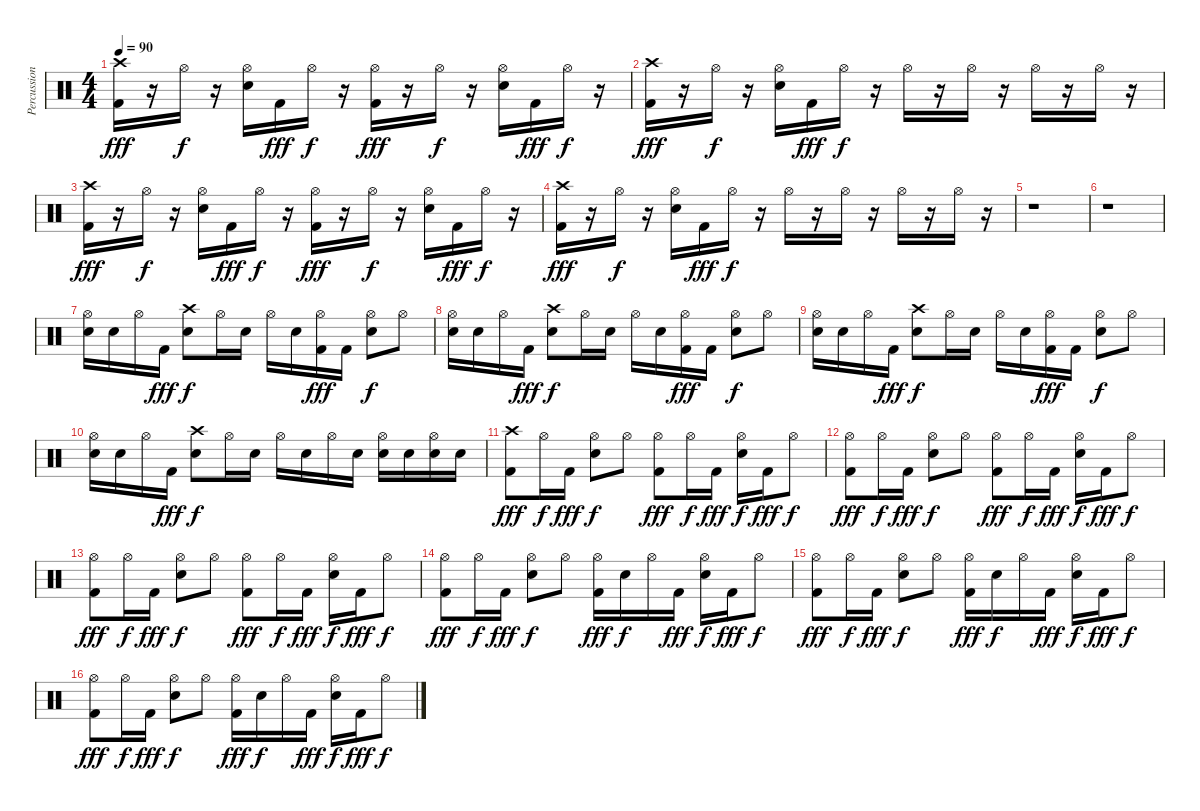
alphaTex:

\track ("Percussions" "Percussion") {instrument percussion}
\staff {score}
\articulation defaults
\ts (4 4)
\tempo 90
\clef neutral
\ks c
("Crash high (hit)" "Kick (hit) 2").16{dy fff} r.16 "Hi-Hat (open)".16{dy f} r.16 ("Hi-Hat (open)" "Snare (hit) 2").16 "Kick (hit) 2".16{dy fff} "Hi-Hat (open)".16{dy f} r.16 ("Hi-Hat (open)" "Kick (hit) 2").16{dy fff} r.16 "Hi-Hat (open)".16{dy f} r.16 ("Hi-Hat (open)" "Snare (hit) 2").16 "Kick (hit) 2".16{dy fff} "Hi-Hat (open)".16{dy f} r.16 |
("Crash high (hit)" "Kick (hit) 2").16{dy fff} r.16 "Hi-Hat (open)".16{dy f} r.16 ("Hi-Hat (open)" "Snare (hit) 2").16 "Kick (hit) 2".16{dy fff} "Hi-Hat (open)".16{dy f} r.16 "Hi-Hat (open)".16 r.16 "Hi-Hat (open)".16 r.16 "Hi-Hat (open)".16 r.16 "Hi-Hat (open)".16 r.16 |
("Crash high (hit)" "Kick (hit) 2").16{dy fff} r.16 "Hi-Hat (open)".16{dy f} r.16 ("Hi-Hat (open)" "Snare (hit) 2").16 "Kick (hit) 2".16{dy fff} "Hi-Hat (open)".16{dy f} r.16 ("Hi-Hat (open)" "Kick (hit) 2").16{dy fff} r.16 "Hi-Hat (open)".16{dy f} r.16 ("Hi-Hat (open)" "Snare (hit) 2").16 "Kick (hit) 2".16{dy fff} "Hi-Hat (open)".16{dy f} r.16 |
("Crash high (hit)" "Kick (hit) 2").16{dy fff} r.16 "Hi-Hat (open)".16{dy f} r.16 ("Hi-Hat (open)" "Snare (hit) 2").16 "Kick (hit) 2".16{dy fff} "Hi-Hat (open)".16{dy f} r.16 "Hi-Hat (open)".16 r.16 "Hi-Hat (open)".16 r.16 "Hi-Hat (open)".16 r.16 "Hi-Hat (open)".16 r.16 |
r.1 |
r.1 |
("Hi-Hat (open)" "Snare (hit) 2").16 "Snare (hit) 2".16 "Hi-Hat (open)".16 "Kick (hit) 2".16{dy fff} ("Crash high (hit)" "Snare (hit) 2").8{dy f} "Hi-Hat (open)".16 "Snare (hit) 2".16 "Hi-Hat (open)".16 "Snare (hit) 2".16 ("Hi-Hat (open)" "Kick (hit) 2").16{dy fff} "Kick (hit) 2".16 ("Hi-Hat (open)" "Snare (hit) 2").8{dy f} "Hi-Hat (open)".8 |
("Hi-Hat (open)" "Snare (hit) 2").16 "Snare (hit) 2".16 "Hi-Hat (open)".16 "Kick (hit) 2".16{dy fff} ("Crash high (hit)" "Snare (hit) 2").8{dy f} "Hi-Hat (open)".16 "Snare (hit) 2".16 "Hi-Hat (open)".16 "Snare (hit) 2".16 ("Hi-Hat (open)" "Kick (hit) 2").16{dy fff} "Kick (hit) 2".16 ("Hi-Hat (open)" "Snare (hit) 2").8{dy f} "Hi-Hat (open)".8 |
("Hi-Hat (open)" "Snare (hit) 2").16 "Snare (hit) 2".16 "Hi-Hat (open)".16 "Kick (hit) 2".16{dy fff} ("Crash high (hit)" "Snare (hit) 2").8{dy f} "Hi-Hat (open)".16 "Snare (hit) 2".16 "Hi-Hat (open)".16 "Snare (hit) 2".16 ("Hi-Hat (open)" "Kick (hit) 2").16{dy fff} "Kick (hit) 2".16 ("Hi-Hat (open)" "Snare (hit) 2").8{dy f} "Hi-Hat (open)".8 |
("Hi-Hat (open)" "Snare (hit) 2").16 "Snare (hit) 2".16 "Hi-Hat (open)".16 "Kick (hit) 2".16{dy fff} ("Crash high (hit)" "Snare (hit) 2").8{dy f} "Hi-Hat (open)".16 "Snare (hit) 2".16 "Hi-Hat (open)".16 "Snare (hit) 2".16 "Hi-Hat (open)".16 "Snare (hit) 2".16 ("Hi-Hat (open)" "Snare (hit) 2").16 "Snare (hit) 2".16 ("Hi-Hat (open)" "Snare (hit) 2").16 "Snare (hit) 2".16 |
("Crash high (hit)" "Kick (hit) 2").8{dy fff} "Hi-Hat (open)".16{dy f} "Kick (hit) 2".16{dy fff} ("Hi-Hat (open)" "Snare (hit) 2").8{dy f} "Hi-Hat (open)".8 ("Hi-Hat (open)" "Kick (hit) 2").8{dy fff} "Hi-Hat (open)".16{dy f} "Kick (hit) 2".16{dy fff} ("Hi-Hat (open)" "Snare (hit) 2").16{dy f} "Kick (hit) 2".16{dy fff} "Hi-Hat (open)".8{dy f} |
("Hi-Hat (open)" "Kick (hit) 2").8{dy fff} "Hi-Hat (open)".16{dy f} "Kick (hit) 2".16{dy fff} ("Hi-Hat (open)" "Snare (hit) 2").8{dy f} "Hi-Hat (open)".8 ("Hi-Hat (open)" "Kick (hit) 2").8{dy fff} "Hi-Hat (open)".16{dy f} "Kick (hit) 2".16{dy fff} ("Hi-Hat (open)" "Snare (hit) 2").16{dy f} "Kick (hit) 2".16{dy fff} "Hi-Hat (open)".8{dy f} |
("Hi-Hat (open)" "Kick (hit) 2").8{dy fff} "Hi-Hat (open)".16{dy f} "Kick (hit) 2".16{dy fff} ("Hi-Hat (open)" "Snare (hit) 2").8{dy f} "Hi-Hat (open)".8 ("Hi-Hat (open)" "Kick (hit) 2").8{dy fff} "Hi-Hat (open)".16{dy f} "Kick (hit) 2".16{dy fff} ("Hi-Hat (open)" "Snare (hit) 2").16{dy f} "Kick (hit) 2".16{dy fff} "Hi-Hat (open)".8{dy f} |
("Hi-Hat (open)" "Kick (hit) 2").8{dy fff} "Hi-Hat (open)".16{dy f} "Kick (hit) 2".16{dy fff} ("Hi-Hat (open)" "Snare (hit) 2").8{dy f} "Hi-Hat (open)".8 ("Hi-Hat (open)" "Kick (hit) 2").16{dy fff} "Snare (hit) 2".16{dy f} "Hi-Hat (open)".16 "Kick (hit) 2".16{dy fff} ("Hi-Hat (open)" "Snare (hit) 2").16{dy f} "Kick (hit) 2".16{dy fff} "Hi-Hat (open)".8{dy f} |
("Hi-Hat (open)" "Kick (hit) 2").8{dy fff} "Hi-Hat (open)".16{dy f} "Kick (hit) 2".16{dy fff} ("Hi-Hat (open)" "Snare (hit) 2").8{dy f} "Hi-Hat (open)".8 ("Hi-Hat (open)" "Kick (hit) 2").16{dy fff} "Snare (hit) 2".16{dy f} "Hi-Hat (open)".16 "Kick (hit) 2".16{dy fff} ("Hi-Hat (open)" "Snare (hit) 2").16{dy f} "Kick (hit) 2".16{dy fff} "Hi-Hat (open)".8{dy f} |
("Hi-Hat (open)" "Kick (hit) 2").8{dy fff} "Hi-Hat (open)".16{dy f} "Kick (hit) 2".16{dy fff} ("Hi-Hat (open)" "Snare (hit) 2").8{dy f} "Hi-Hat (open)".8 ("Hi-Hat (open)" "Kick (hit) 2").16{dy fff} "Snare (hit) 2".16{dy f} "Hi-Hat (open)".16 "Kick (hit) 2".16{dy fff} ("Hi-Hat (open)" "Snare (hit) 2").16{dy f} "Kick (hit) 2".16{dy fff} "Hi-Hat (open)".8{dy f}
